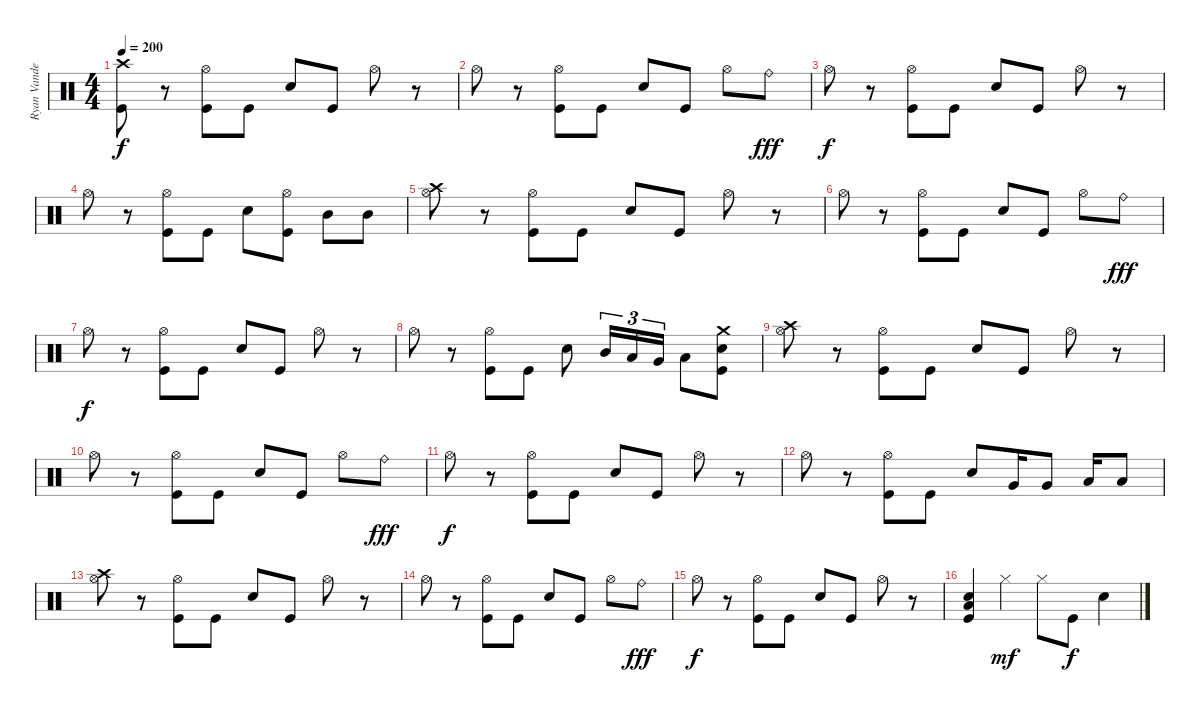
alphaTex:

\track ("Ryan Vandebergh" "Ryan Vande") {instrument percussion}
\staff {score}
\articulation defaults
\ts (4 4)
\tempo 200
\clef neutral
\ks c
("Crash high (hit)" "Kick (hit)").8{dy f} r.8 ("Hi-Hat (open)" "Kick (hit)").8 "Kick (hit)".8 "Electric Snare (hit)".8 "Kick (hit)".8 "Hi-Hat (open)".8 r.8 |
"Hi-Hat (open)".8 r.8 ("Hi-Hat (open)" "Kick (hit)").8 "Kick (hit)".8 "Electric Snare (hit)".8 "Kick (hit)".8 "Hi-Hat (open)".8 "Ride (bell)".8{dy fff} |
"Hi-Hat (open)".8{dy f} r.8 ("Hi-Hat (open)" "Kick (hit)").8 "Kick (hit)".8 "Electric Snare (hit)".8 "Kick (hit)".8 "Hi-Hat (open)".8 r.8 |
"Hi-Hat (open)".8 r.8 ("Hi-Hat (open)" "Kick (hit)").8 "Kick (hit)".8 "Electric Snare (hit)".8 ("Hi-Hat (open)" "Kick (hit)").8 "Mid Tom (hit)".8 "Mid Tom (hit)".8 |
("Crash high (hit)" "Hi-Hat (open)").8 r.8 ("Hi-Hat (open)" "Kick (hit)").8 "Kick (hit)".8 "Electric Snare (hit)".8 "Kick (hit)".8 "Hi-Hat (open)".8 r.8 |
"Hi-Hat (open)".8 r.8 ("Hi-Hat (open)" "Kick (hit)").8 "Kick (hit)".8 "Electric Snare (hit)".8 "Kick (hit)".8 "Hi-Hat (open)".8 "Ride (bell)".8{dy fff} |
"Hi-Hat (open)".8{dy f} r.8 ("Hi-Hat (open)" "Kick (hit)").8 "Kick (hit)".8 "Electric Snare (hit)".8 "Kick (hit)".8 "Hi-Hat (open)".8 r.8 |
"Hi-Hat (open)".8 r.8 ("Hi-Hat (open)" "Kick (hit)").8 "Kick (hit)".8 "Electric Snare (hit)".8 "Mid Tom (hit)".16{tu (3 2)} "Low Tom (hit)".16{tu (3 2)} "Very Low Tom (hit)".16{tu (3 2)} "Low Floor Tom (hit)".8 ("Crash medium (hit)" "Electric Snare (hit)" "Kick (hit)").8 |
("Crash high (hit)" "Hi-Hat (open)").8 r.8 ("Hi-Hat (open)" "Kick (hit)").8 "Kick (hit)".8 "Electric Snare (hit)".8 "Kick (hit)".8 "Hi-Hat (open)".8 r.8 |
"Hi-Hat (open)".8 r.8 ("Hi-Hat (open)" "Kick (hit)").8 "Kick (hit)".8 "Electric Snare (hit)".8 "Kick (hit)".8 "Hi-Hat (open)".8 "Ride (bell)".8{dy fff} |
"Hi-Hat (open)".8{dy f} r.8 ("Hi-Hat (open)" "Kick (hit)").8 "Kick (hit)".8 "Electric Snare (hit)".8 "Kick (hit)".8 "Hi-Hat (open)".8 r.8 |
"Hi-Hat (open)".8 r.8 ("Hi-Hat (open)" "Kick (hit)").8 "Kick (hit)".8 "Electric Snare (hit)".8 "Very Low Tom (hit)".16 "Very Low Tom (hit)".8 "Low Floor Tom (hit)".16 "Low Floor Tom (hit)".8 |
("Crash high (hit)" "Hi-Hat (open)").8 r.8 ("Hi-Hat (open)" "Kick (hit)").8 "Kick (hit)".8 "Electric Snare (hit)".8 "Kick (hit)".8 "Hi-Hat (open)".8 r.8 |
"Hi-Hat (open)".8 r.8 ("Hi-Hat (open)" "Kick (hit)").8 "Kick (hit)".8 "Electric Snare (hit)".8 "Kick (hit)".8 "Hi-Hat (open)".8 "Ride (bell)".8{dy fff} |
"Hi-Hat (open)".8{dy f} r.8 ("Hi-Hat (open)" "Kick (hit)").8 "Kick (hit)".8 "Electric Snare (hit)".8 "Kick (hit)".8 "Hi-Hat (open)".8 r.8 |
("Low Floor Tom (hit)" "Electric Snare (hit)" "Kick (hit)").4 "Hi-Hat (closed)".4{dy mf} "Hi-Hat (closed)".8 "Kick (hit)".8{dy f} "Electric Snare (hit)".4
